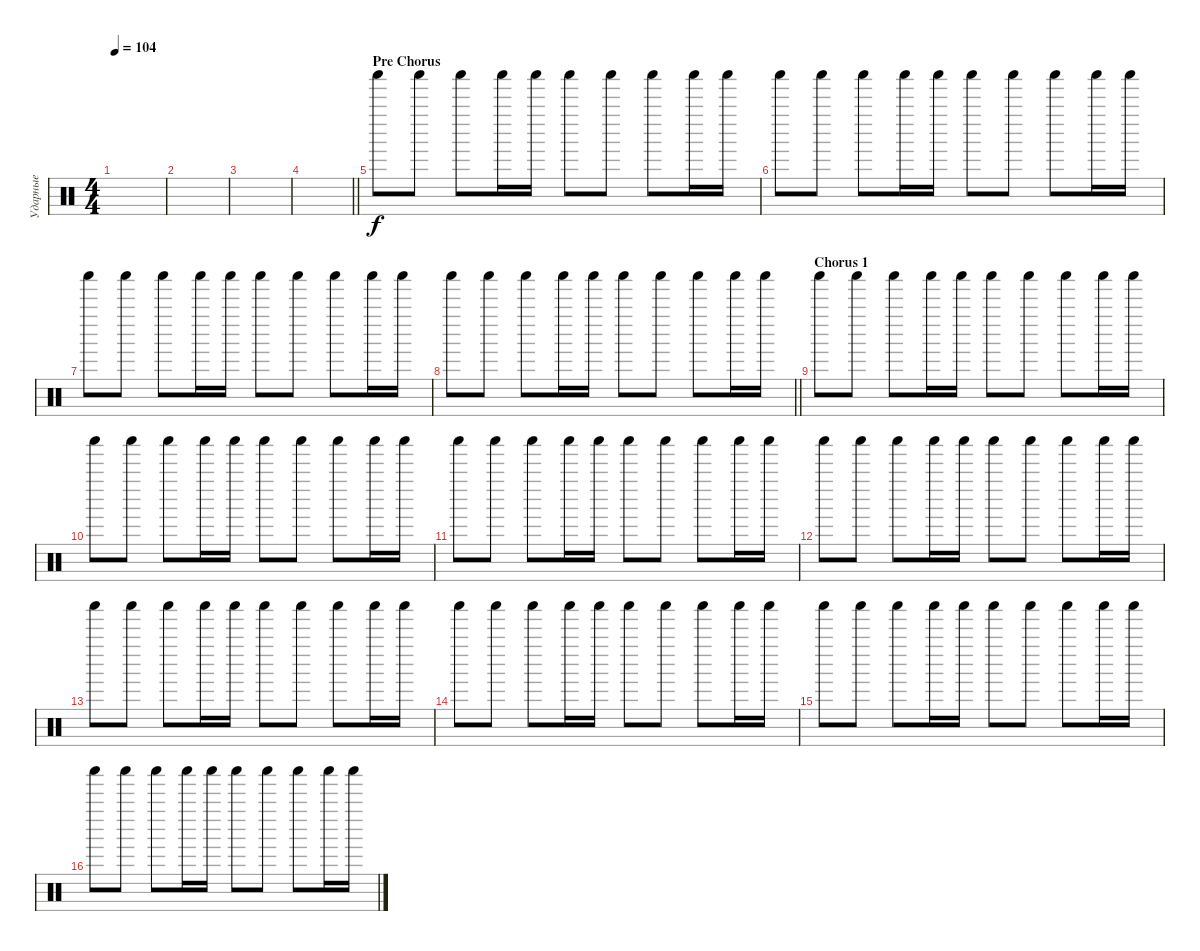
\track ("Ударные" "Ударные") {instrument percussion}
\staff {score}
\articulation defaults
\ts (4 4)
\tempo 104
\clef neutral
\ks c
|
|
|
\barLineRight lightlight
|
\section ("" "Pre Chorus")
"Shaker (hit)".8 "Shaker (hit)".8 "Shaker (hit)".8 "Shaker (hit)".16 "Shaker (hit)".16 "Shaker (hit)".8 "Shaker (hit)".8 "Shaker (hit)".8 "Shaker (hit)".16 "Shaker (hit)".16 |
"Shaker (hit)".8 "Shaker (hit)".8 "Shaker (hit)".8 "Shaker (hit)".16 "Shaker (hit)".16 "Shaker (hit)".8 "Shaker (hit)".8 "Shaker (hit)".8 "Shaker (hit)".16 "Shaker (hit)".16 |
"Shaker (hit)".8 "Shaker (hit)".8 "Shaker (hit)".8 "Shaker (hit)".16 "Shaker (hit)".16 "Shaker (hit)".8 "Shaker (hit)".8 "Shaker (hit)".8 "Shaker (hit)".16 "Shaker (hit)".16 |
\barLineRight lightlight "Shaker (hit)".8 "Shaker (hit)".8 "Shaker (hit)".8 "Shaker (hit)".16 "Shaker (hit)".16 "Shaker (hit)".8 "Shaker (hit)".8 "Shaker (hit)".8 "Shaker (hit)".16 "Shaker (hit)".16
|
\section ("" "Chorus 1")
"Shaker (hit)".8 "Shaker (hit)".8 "Shaker (hit)".8 "Shaker (hit)".16 "Shaker (hit)".16 "Shaker (hit)".8 "Shaker (hit)".8 "Shaker (hit)".8 "Shaker (hit)".16 "Shaker (hit)".16 |
"Shaker (hit)".8 "Shaker (hit)".8 "Shaker (hit)".8 "Shaker (hit)".16 "Shaker (hit)".16 "Shaker (hit)".8 "Shaker (hit)".8 "Shaker (hit)".8 "Shaker (hit)".16 "Shaker (hit)".16 |
"Shaker (hit)".8 "Shaker (hit)".8 "Shaker (hit)".8 "Shaker (hit)".16 "Shaker (hit)".16 "Shaker (hit)".8 "Shaker (hit)".8 "Shaker (hit)".8 "Shaker (hit)".16 "Shaker (hit)".16 |
"Shaker (hit)".8 "Shaker (hit)".8 "Shaker (hit)".8 "Shaker (hit)".16 "Shaker (hit)".16 "Shaker (hit)".8 "Shaker (hit)".8 "Shaker (hit)".8 "Shaker (hit)".16 "Shaker (hit)".16 |
"Shaker (hit)".8 "Shaker (hit)".8 "Shaker (hit)".8 "Shaker (hit)".16 "Shaker (hit)".16 "Shaker (hit)".8 "Shaker (hit)".8 "Shaker (hit)".8 "Shaker (hit)".16 "Shaker (hit)".16 |
"Shaker (hit)".8 "Shaker (hit)".8 "Shaker (hit)".8 "Shaker (hit)".16 "Shaker (hit)".16 "Shaker (hit)".8 "Shaker (hit)".8 "Shaker (hit)".8 "Shaker (hit)".16 "Shaker (hit)".16 |
"Shaker (hit)".8 "Shaker (hit)".8 "Shaker (hit)".8 "Shaker (hit)".16 "Shaker (hit)".16 "Shaker (hit)".8 "Shaker (hit)".8 "Shaker (hit)".8 "Shaker (hit)".16 "Shaker (hit)".16 |
"Shaker (hit)".8 "Shaker (hit)".8 "Shaker (hit)".8 "Shaker (hit)".16 "Shaker (hit)".16 "Shaker (hit)".8 "Shaker (hit)".8 "Shaker (hit)".8 "Shaker (hit)".16 "Shaker (hit)".16
